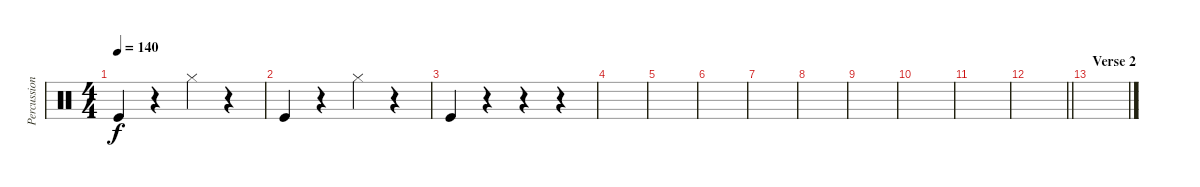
\track ("Percussion" "Percussion") {instrument percussion}
\staff {score}
\articulation defaults
\ts (4 4)
\tempo 140
\clef neutral
\ks c "Kick (hit)".4{dy f}
r.4 "Hi-Hat (closed)".4 r.4 |
"Kick (hit)".4 r.4 "Hi-Hat (closed)".4 r.4 |
"Kick (hit)".4 r.4 r.4 r.4 |
|
|
|
|
|
|
|
|
\barLineRight lightlight
|
\section ("" "Verse 2")
